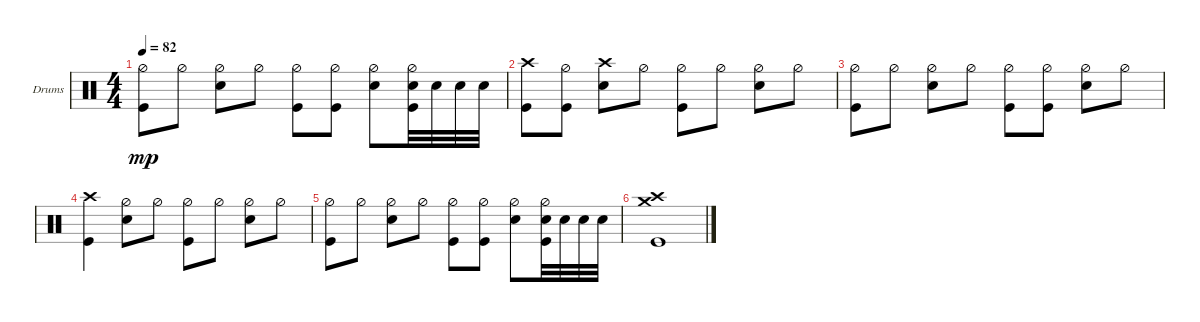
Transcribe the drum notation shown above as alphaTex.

\defaultSystemsLayout 4
\bracketExtendMode groupsimilarinstruments
\firstSystemTrackNameOrientation horizontal
\otherSystemsTrackNameOrientation horizontal
\track ("Drumkit" "Drums") {instrument percussion}
\staff {score}
\articulation defaults
\ts (4 4)
\tempo 82
\clef neutral
\ks c
("Kick (hit)" "Hi-Hat (half)").8{dy mp} "Hi-Hat (half)".8 ("Snare (hit) 2" "Hi-Hat (half)").8 "Hi-Hat (half)".8 ("Kick (hit)" "Hi-Hat (half)").8 ("Kick (hit)" "Hi-Hat (half)").8 ("Snare (hit) 2" "Hi-Hat (half)").8 ("Hi-Hat (half)" "Snare (hit) 2" "Kick (hit)").32 "Snare (hit) 2".32 "Snare (hit) 2".32 "Snare (hit) 2".32 |
("Kick (hit)" "Crash high (hit)").8 ("Kick (hit)" "Hi-Hat (half)").8 ("Snare (hit) 2" "Crash high (hit)").8 "Hi-Hat (half)".8 ("Kick (hit)" "Hi-Hat (half)").8 "Hi-Hat (half)".8 ("Snare (hit) 2" "Hi-Hat (half)").8 "Hi-Hat (half)".8 |
("Kick (hit)" "Hi-Hat (half)").8 "Hi-Hat (half)".8 ("Snare (hit) 2" "Hi-Hat (half)").8 "Hi-Hat (half)".8 ("Kick (hit)" "Hi-Hat (half)").8 ("Kick (hit)" "Hi-Hat (half)").8 ("Snare (hit) 2" "Hi-Hat (half)").8 "Hi-Hat (half)".8 |
("Kick (hit)" "Crash high (hit)").4 ("Snare (hit) 2" "Hi-Hat (half)").8 "Hi-Hat (half)".8 ("Kick (hit)" "Hi-Hat (half)").8 "Hi-Hat (half)".8 ("Snare (hit) 2" "Hi-Hat (half)").8 "Hi-Hat (half)".8 |
("Kick (hit)" "Hi-Hat (half)").8 "Hi-Hat (half)".8 ("Snare (hit) 2" "Hi-Hat (half)").8 "Hi-Hat (half)".8 ("Kick (hit)" "Hi-Hat (half)").8 ("Kick (hit)" "Hi-Hat (half)").8 ("Snare (hit) 2" "Hi-Hat (half)").8 ("Hi-Hat (half)" "Snare (hit) 2" "Kick (hit)").32 "Snare (hit) 2".32 "Snare (hit) 2".32 "Snare (hit) 2".32 |
("Kick (hit)" "Crash medium (hit)" "Crash high (hit)").1
